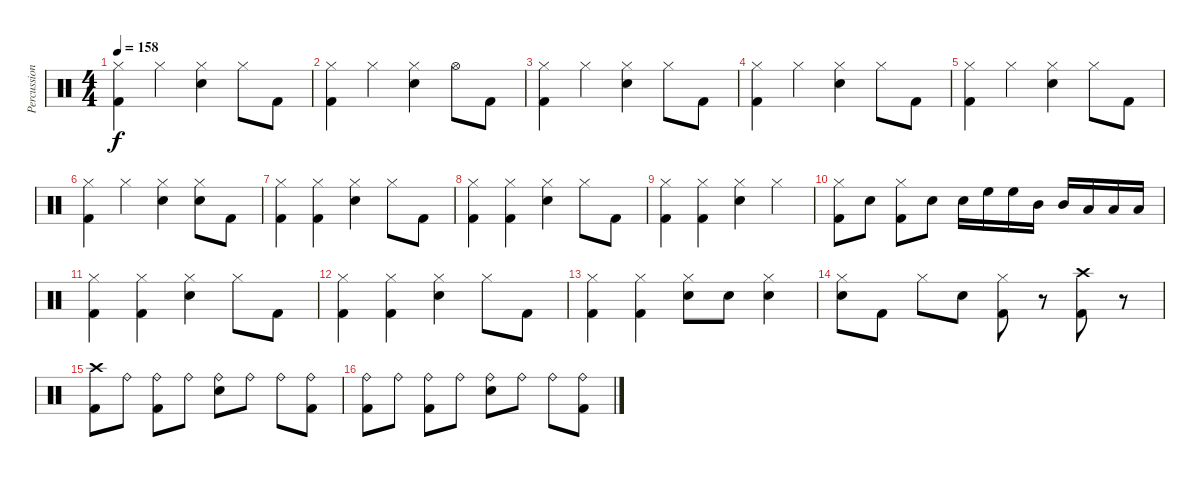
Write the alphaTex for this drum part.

\track ("Percussions" "Percussion") {instrument percussion}
\staff {score}
\articulation defaults
\ts (4 4)
\tempo 158
\clef neutral
\ks c
("Hi-Hat (closed)" "Kick (hit) 2").4{dy f} "Hi-Hat (closed)".4 ("Hi-Hat (closed)" "Snare (hit) 2").4 "Hi-Hat (closed)".8 "Kick (hit) 2".8 |
("Hi-Hat (closed)" "Kick (hit) 2").4 "Hi-Hat (closed)".4 ("Hi-Hat (closed)" "Snare (hit) 2").4 "Hi-Hat (open)".8 "Kick (hit) 2".8 |
("Hi-Hat (closed)" "Kick (hit) 2").4 "Hi-Hat (closed)".4 ("Hi-Hat (closed)" "Snare (hit) 2").4 "Hi-Hat (closed)".8 "Kick (hit) 2".8 |
("Hi-Hat (closed)" "Kick (hit) 2").4 "Hi-Hat (closed)".4 ("Hi-Hat (closed)" "Snare (hit) 2").4 "Hi-Hat (closed)".8 "Kick (hit) 2".8 |
("Hi-Hat (closed)" "Kick (hit) 2").4 "Hi-Hat (closed)".4 ("Hi-Hat (closed)" "Snare (hit) 2").4 "Hi-Hat (closed)".8 "Kick (hit) 2".8 |
("Hi-Hat (closed)" "Kick (hit) 2").4 "Hi-Hat (closed)".4 ("Hi-Hat (closed)" "Snare (hit) 2").4 ("Hi-Hat (closed)" "Snare (hit) 2").8 "Kick (hit) 2".8 |
("Hi-Hat (closed)" "Kick (hit) 2").4 ("Hi-Hat (closed)" "Kick (hit) 2").4 ("Hi-Hat (closed)" "Snare (hit) 2").4 "Hi-Hat (closed)".8 "Kick (hit) 2".8 |
("Hi-Hat (closed)" "Kick (hit) 2").4 ("Hi-Hat (closed)" "Kick (hit) 2").4 ("Hi-Hat (closed)" "Snare (hit) 2").4 "Hi-Hat (closed)".8 "Kick (hit) 2".8 |
("Hi-Hat (closed)" "Kick (hit) 2").4 ("Hi-Hat (closed)" "Kick (hit) 2").4 ("Hi-Hat (closed)" "Snare (hit) 2").4 "Hi-Hat (closed)".4 |
("Hi-Hat (closed)" "Kick (hit) 2").8 "Snare (hit) 2".8 ("Hi-Hat (closed)" "Kick (hit) 2").8 "Snare (hit) 2".8 "Snare (hit) 2".16 "High Floor Tom (hit)".16 "High Floor Tom (hit)".16 "Mid Tom (hit)".16 "Mid Tom (hit)".16 "Low Tom (hit)".16 "Low Tom (hit)".16 "Low Tom (hit)".16 |
("Hi-Hat (closed)" "Kick (hit) 2").4 ("Hi-Hat (closed)" "Kick (hit) 2").4 ("Hi-Hat (closed)" "Snare (hit) 2").4 "Hi-Hat (closed)".8 "Kick (hit) 2".8 |
("Hi-Hat (closed)" "Kick (hit) 2").4 ("Hi-Hat (closed)" "Kick (hit) 2").4 ("Hi-Hat (closed)" "Snare (hit) 2").4 "Hi-Hat (closed)".8 "Kick (hit) 2".8 |
("Hi-Hat (closed)" "Kick (hit) 2").4 ("Hi-Hat (closed)" "Kick (hit) 2").4 ("Hi-Hat (closed)" "Snare (hit) 2").8 "Snare (hit) 2".8 ("Hi-Hat (closed)" "Snare (hit) 2").4 |
("Hi-Hat (closed)" "Snare (hit) 2").8 "Kick (hit) 2".8 "Hi-Hat (closed)".8 "Snare (hit) 2".8 ("Hi-Hat (closed)" "Kick (hit) 2").8 r.8 ("Crash high (hit)" "Kick (hit) 2").8 r.8 |
("Crash high (hit)" "Kick (hit) 2").8 "Ride (bell)".8 ("Ride (bell)" "Kick (hit) 2").8 "Ride (bell)".8 ("Ride (bell)" "Snare (hit) 2").8 "Ride (bell)".8 "Ride (bell)".8 ("Ride (bell)" "Kick (hit) 2").8 |
("Ride (bell)" "Kick (hit) 2").8 "Ride (bell)".8 ("Ride (bell)" "Kick (hit) 2").8 "Ride (bell)".8 ("Ride (bell)" "Snare (hit) 2").8 "Ride (bell)".8 "Ride (bell)".8 ("Ride (bell)" "Kick (hit) 2").8
